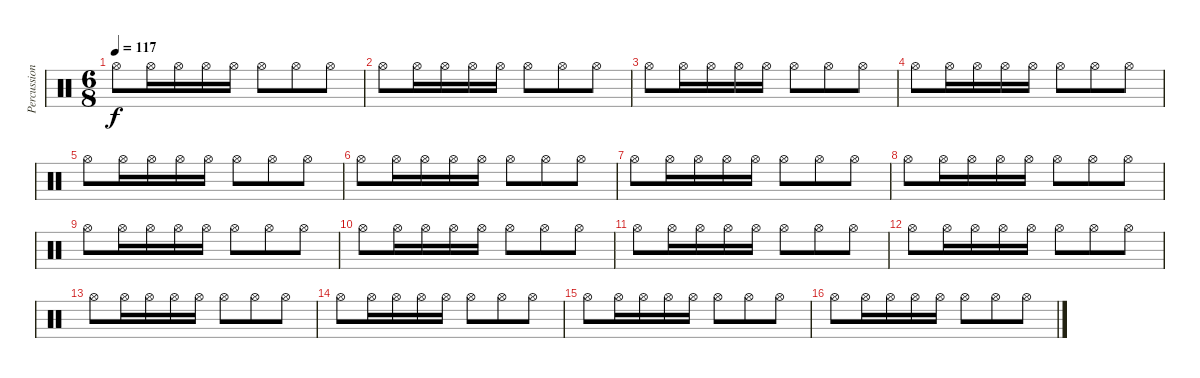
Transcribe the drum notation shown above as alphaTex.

\track ("Percussion" "Percussion") {instrument percussion}
\staff {score}
\articulation defaults
\ts (6 8)
\tempo 117
\clef neutral
\ks c "Hi-Hat (open)".8{dy f} "Hi-Hat (open)".16 "Hi-Hat (open)".16 "Hi-Hat (open)".16 "Hi-Hat (open)".16 "Hi-Hat (open)".8 "Hi-Hat (open)".8 "Hi-Hat (open)".8
|
"Hi-Hat (open)".8 "Hi-Hat (open)".16 "Hi-Hat (open)".16 "Hi-Hat (open)".16 "Hi-Hat (open)".16 "Hi-Hat (open)".8 "Hi-Hat (open)".8 "Hi-Hat (open)".8 |
"Hi-Hat (open)".8 "Hi-Hat (open)".16 "Hi-Hat (open)".16 "Hi-Hat (open)".16 "Hi-Hat (open)".16 "Hi-Hat (open)".8 "Hi-Hat (open)".8 "Hi-Hat (open)".8 |
"Hi-Hat (open)".8 "Hi-Hat (open)".16 "Hi-Hat (open)".16 "Hi-Hat (open)".16 "Hi-Hat (open)".16 "Hi-Hat (open)".8 "Hi-Hat (open)".8 "Hi-Hat (open)".8 |
"Hi-Hat (open)".8 "Hi-Hat (open)".16 "Hi-Hat (open)".16 "Hi-Hat (open)".16 "Hi-Hat (open)".16 "Hi-Hat (open)".8 "Hi-Hat (open)".8 "Hi-Hat (open)".8 |
"Hi-Hat (open)".8 "Hi-Hat (open)".16 "Hi-Hat (open)".16 "Hi-Hat (open)".16 "Hi-Hat (open)".16 "Hi-Hat (open)".8 "Hi-Hat (open)".8 "Hi-Hat (open)".8 |
"Hi-Hat (open)".8 "Hi-Hat (open)".16 "Hi-Hat (open)".16 "Hi-Hat (open)".16 "Hi-Hat (open)".16 "Hi-Hat (open)".8 "Hi-Hat (open)".8 "Hi-Hat (open)".8 |
"Hi-Hat (open)".8 "Hi-Hat (open)".16 "Hi-Hat (open)".16 "Hi-Hat (open)".16 "Hi-Hat (open)".16 "Hi-Hat (open)".8 "Hi-Hat (open)".8 "Hi-Hat (open)".8 |
"Hi-Hat (open)".8 "Hi-Hat (open)".16 "Hi-Hat (open)".16 "Hi-Hat (open)".16 "Hi-Hat (open)".16 "Hi-Hat (open)".8 "Hi-Hat (open)".8 "Hi-Hat (open)".8 |
"Hi-Hat (open)".8 "Hi-Hat (open)".16 "Hi-Hat (open)".16 "Hi-Hat (open)".16 "Hi-Hat (open)".16 "Hi-Hat (open)".8 "Hi-Hat (open)".8 "Hi-Hat (open)".8 |
"Hi-Hat (open)".8 "Hi-Hat (open)".16 "Hi-Hat (open)".16 "Hi-Hat (open)".16 "Hi-Hat (open)".16 "Hi-Hat (open)".8 "Hi-Hat (open)".8 "Hi-Hat (open)".8 |
"Hi-Hat (open)".8 "Hi-Hat (open)".16 "Hi-Hat (open)".16 "Hi-Hat (open)".16 "Hi-Hat (open)".16 "Hi-Hat (open)".8 "Hi-Hat (open)".8 "Hi-Hat (open)".8 |
"Hi-Hat (open)".8 "Hi-Hat (open)".16 "Hi-Hat (open)".16 "Hi-Hat (open)".16 "Hi-Hat (open)".16 "Hi-Hat (open)".8 "Hi-Hat (open)".8 "Hi-Hat (open)".8 |
"Hi-Hat (open)".8 "Hi-Hat (open)".16 "Hi-Hat (open)".16 "Hi-Hat (open)".16 "Hi-Hat (open)".16 "Hi-Hat (open)".8 "Hi-Hat (open)".8 "Hi-Hat (open)".8 |
"Hi-Hat (open)".8 "Hi-Hat (open)".16 "Hi-Hat (open)".16 "Hi-Hat (open)".16 "Hi-Hat (open)".16 "Hi-Hat (open)".8 "Hi-Hat (open)".8 "Hi-Hat (open)".8 |
"Hi-Hat (open)".8 "Hi-Hat (open)".16 "Hi-Hat (open)".16 "Hi-Hat (open)".16 "Hi-Hat (open)".16 "Hi-Hat (open)".8 "Hi-Hat (open)".8 "Hi-Hat (open)".8
